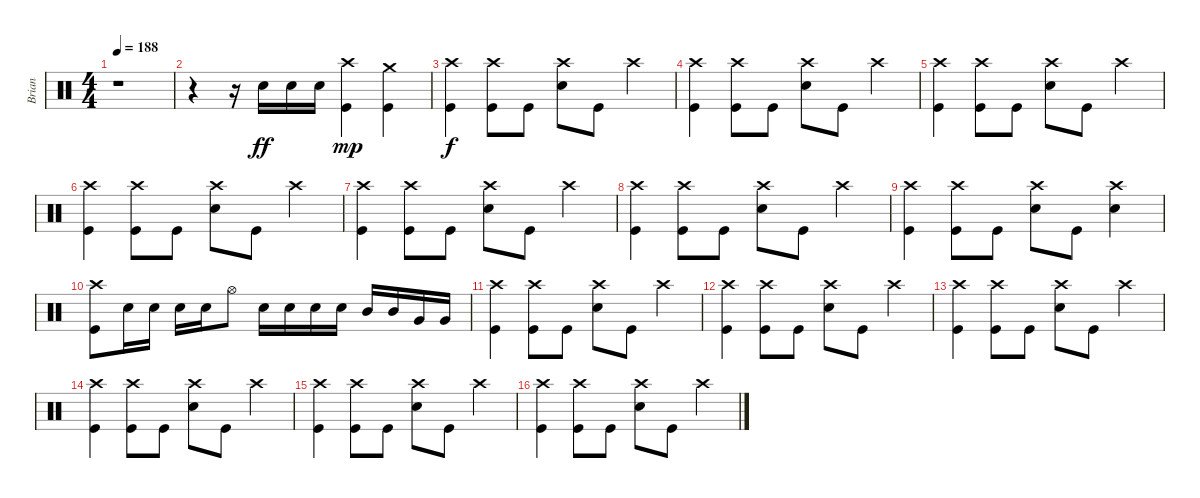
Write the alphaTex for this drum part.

\track ("Brian" "Brian") {instrument percussion}
\staff {score}
\articulation defaults
\ts (4 4)
\tempo 188
\clef neutral
\ks c
r.1{dy ff} |
r.4 r.16 "Snare (hit) 2".16 "Snare (hit) 2".16 "Snare (hit) 2".16 ("Crash high (hit)" "Kick (hit)").4{dy mp} ("Crash medium (hit)" "Kick (hit)").4 |
("Crash high (hit)" "Kick (hit)").4{dy f} ("Crash high (hit)" "Kick (hit)").8 "Kick (hit)".8 ("Crash high (hit)" "Snare (hit) 2").8 "Kick (hit)".8 "Crash high (hit)".4 |
("Crash high (hit)" "Kick (hit)").4 ("Crash high (hit)" "Kick (hit)").8 "Kick (hit)".8 ("Crash high (hit)" "Snare (hit) 2").8 "Kick (hit)".8 "Crash high (hit)".4 |
("Crash high (hit)" "Kick (hit)").4 ("Crash high (hit)" "Kick (hit)").8 "Kick (hit)".8 ("Crash high (hit)" "Snare (hit) 2").8 "Kick (hit)".8 "Crash high (hit)".4 |
("Crash high (hit)" "Kick (hit)").4 ("Crash high (hit)" "Kick (hit)").8 "Kick (hit)".8 ("Crash high (hit)" "Snare (hit) 2").8 "Kick (hit)".8 "Crash high (hit)".4 |
("Crash high (hit)" "Kick (hit)").4 ("Crash high (hit)" "Kick (hit)").8 "Kick (hit)".8 ("Crash high (hit)" "Snare (hit) 2").8 "Kick (hit)".8 "Crash high (hit)".4 |
("Crash high (hit)" "Kick (hit)").4 ("Crash high (hit)" "Kick (hit)").8 "Kick (hit)".8 ("Crash high (hit)" "Snare (hit) 2").8 "Kick (hit)".8 "Crash high (hit)".4 |
("Crash high (hit)" "Kick (hit)").4 ("Crash high (hit)" "Kick (hit)").8 "Kick (hit)".8 ("Crash high (hit)" "Snare (hit) 2").8 "Kick (hit)".8 ("Crash high (hit)" "Snare (hit) 2").4 |
("Crash high (hit)" "Kick (hit)").8 "Snare (hit) 2".16 "Snare (hit) 2".16 "Snare (hit) 2".16 "Snare (hit) 2".16 "Hi-Hat (open)".8 "Snare (hit) 2".16 "Snare (hit) 2".16 "Snare (hit) 2".16 "Snare (hit) 2".16 "Mid Tom (hit)".16 "Mid Tom (hit)".16 "Very Low Tom (hit)".16 "Very Low Tom (hit)".16 |
("Crash high (hit)" "Kick (hit)").4 ("Crash high (hit)" "Kick (hit)").8 "Kick (hit)".8 ("Crash high (hit)" "Snare (hit) 2").8 "Kick (hit)".8 "Crash high (hit)".4 |
("Crash high (hit)" "Kick (hit)").4 ("Crash high (hit)" "Kick (hit)").8 "Kick (hit)".8 ("Crash high (hit)" "Snare (hit) 2").8 "Kick (hit)".8 "Crash high (hit)".4 |
("Crash high (hit)" "Kick (hit)").4 ("Crash high (hit)" "Kick (hit)").8 "Kick (hit)".8 ("Crash high (hit)" "Snare (hit) 2").8 "Kick (hit)".8 "Crash high (hit)".4 |
("Crash high (hit)" "Kick (hit)").4 ("Crash high (hit)" "Kick (hit)").8 "Kick (hit)".8 ("Crash high (hit)" "Snare (hit) 2").8 "Kick (hit)".8 "Crash high (hit)".4 |
("Crash high (hit)" "Kick (hit)").4 ("Crash high (hit)" "Kick (hit)").8 "Kick (hit)".8 ("Crash high (hit)" "Snare (hit) 2").8 "Kick (hit)".8 "Crash high (hit)".4 |
("Crash high (hit)" "Kick (hit)").4 ("Crash high (hit)" "Kick (hit)").8 "Kick (hit)".8 ("Crash high (hit)" "Snare (hit) 2").8 "Kick (hit)".8 "Crash high (hit)".4
